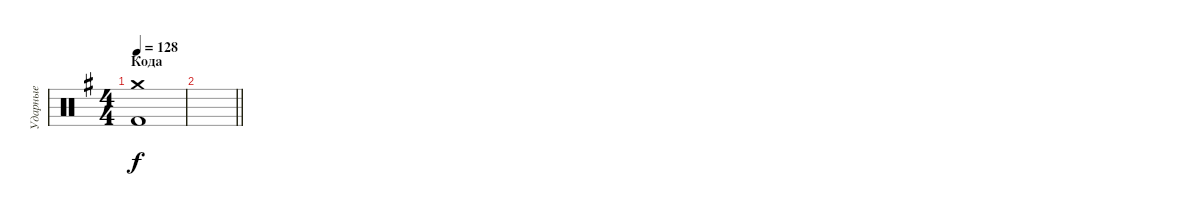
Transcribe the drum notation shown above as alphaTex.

\track ("Ударные" "Ударные") {instrument percussion}
\staff {score}
\articulation defaults
\ts (4 4)
\section ("" "Кода")
\tempo 128
\clef neutral
\ks eminor
("Crash medium (hit)" "Kick (hit) 2").1{dy f} |
\barLineRight lightlight
